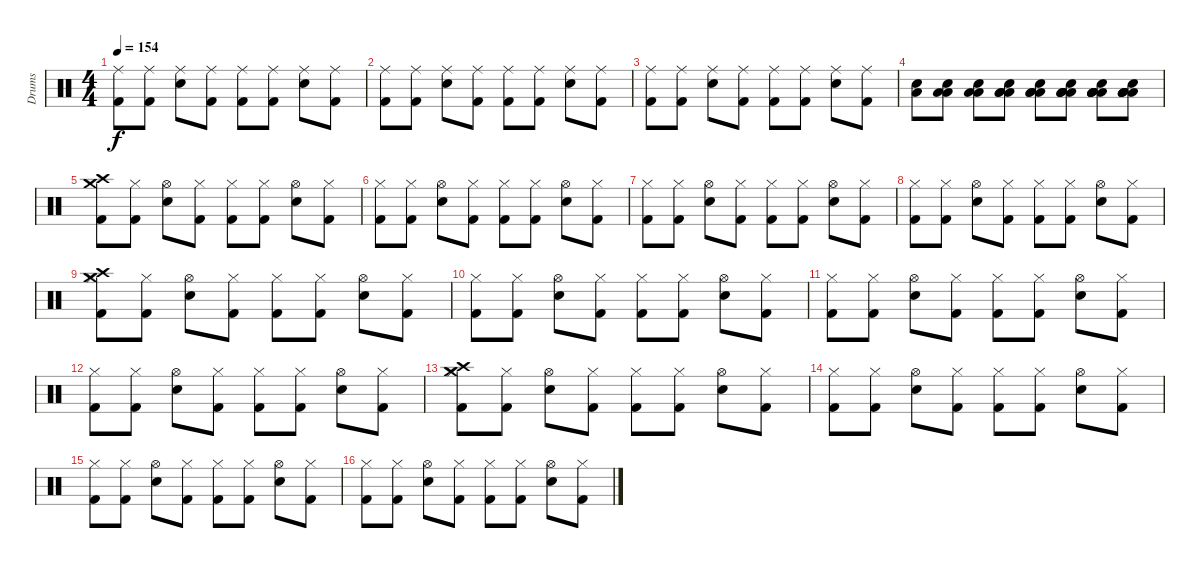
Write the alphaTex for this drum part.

\track ("Drums" "Drums") {instrument percussion}
\staff {score}
\articulation defaults
\ts (4 4)
\tempo 154
\clef neutral
\ks c
("Ride (middle)" "Kick (hit) 2").8{dy f} ("Ride (middle)" "Kick (hit) 2").8 ("Ride (middle)" "Snare (hit) 2").8 ("Ride (middle)" "Kick (hit) 2").8 ("Ride (middle)" "Kick (hit) 2").8 ("Ride (middle)" "Kick (hit) 2").8 ("Ride (middle)" "Snare (hit) 2").8 ("Ride (middle)" "Kick (hit) 2").8 |
("Ride (middle)" "Kick (hit) 2").8 ("Ride (middle)" "Kick (hit) 2").8 ("Ride (middle)" "Snare (hit) 2").8 ("Ride (middle)" "Kick (hit) 2").8 ("Ride (middle)" "Kick (hit) 2").8 ("Ride (middle)" "Kick (hit) 2").8 ("Ride (middle)" "Snare (hit) 2").8 ("Ride (middle)" "Kick (hit) 2").8 |
("Ride (middle)" "Kick (hit) 2").8 ("Ride (middle)" "Kick (hit) 2").8 ("Ride (middle)" "Snare (hit) 2").8 ("Ride (middle)" "Kick (hit) 2").8 ("Ride (middle)" "Kick (hit) 2").8 ("Ride (middle)" "Kick (hit) 2").8 ("Ride (middle)" "Snare (hit) 2").8 ("Ride (middle)" "Kick (hit) 2").8 |
("Low Floor Tom (hit)" "Snare (hit) 2").8 ("Low Tom (hit)" "Low Floor Tom (hit)" "Snare (hit) 2").8 ("Low Tom (hit)" "Low Floor Tom (hit)" "Snare (hit) 2").8 ("Low Floor Tom (hit)" "Low Tom (hit)" "Low Floor Tom (hit)" "Snare (hit) 2").8 ("Low Floor Tom (hit)" "Low Tom (hit)" "Low Floor Tom (hit)" "Snare (hit) 2").8 ("Low Floor Tom (hit)" "Low Floor Tom (hit)" "Low Tom (hit)" "Low Floor Tom (hit)" "Snare (hit) 2").8 ("Low Floor Tom (hit)" "Low Floor Tom (hit)" "Low Floor Tom (hit)" "Low Tom (hit)" "Low Floor Tom (hit)" "Snare (hit) 2").8 ("Low Floor Tom (hit)" "Low Floor Tom (hit)" "Low Floor Tom (hit)" "Low Tom (hit)" "Low Floor Tom (hit)" "Snare (hit) 2").8 |
("Crash high (hit)" "Crash medium (hit)" "Kick (hit) 2").8 ("Hi-Hat (closed)" "Kick (hit) 2").8 ("Hi-Hat (open)" "Snare (hit) 2").8 ("Hi-Hat (closed)" "Kick (hit) 2").8 ("Hi-Hat (closed)" "Kick (hit) 2").8 ("Hi-Hat (closed)" "Kick (hit) 2").8 ("Hi-Hat (open)" "Snare (hit) 2").8 ("Hi-Hat (closed)" "Kick (hit) 2").8 |
("Hi-Hat (closed)" "Kick (hit) 2").8 ("Hi-Hat (closed)" "Kick (hit) 2").8 ("Hi-Hat (open)" "Snare (hit) 2").8 ("Hi-Hat (closed)" "Kick (hit) 2").8 ("Hi-Hat (closed)" "Kick (hit) 2").8 ("Hi-Hat (closed)" "Kick (hit) 2").8 ("Hi-Hat (open)" "Snare (hit) 2").8 ("Hi-Hat (closed)" "Kick (hit) 2").8 |
("Hi-Hat (closed)" "Kick (hit) 2").8 ("Hi-Hat (closed)" "Kick (hit) 2").8 ("Hi-Hat (open)" "Snare (hit) 2").8 ("Hi-Hat (closed)" "Kick (hit) 2").8 ("Hi-Hat (closed)" "Kick (hit) 2").8 ("Hi-Hat (closed)" "Kick (hit) 2").8 ("Hi-Hat (open)" "Snare (hit) 2").8 ("Hi-Hat (closed)" "Kick (hit) 2").8 |
("Hi-Hat (closed)" "Kick (hit) 2").8 ("Hi-Hat (closed)" "Kick (hit) 2").8 ("Hi-Hat (open)" "Snare (hit) 2").8 ("Hi-Hat (closed)" "Kick (hit) 2").8 ("Hi-Hat (closed)" "Kick (hit) 2").8 ("Hi-Hat (closed)" "Kick (hit) 2").8 ("Hi-Hat (open)" "Snare (hit) 2").8 ("Hi-Hat (closed)" "Kick (hit) 2").8 |
("Crash high (hit)" "Crash medium (hit)" "Hi-Hat (closed)" "Kick (hit) 2").8 ("Hi-Hat (closed)" "Kick (hit) 2").8 ("Hi-Hat (open)" "Snare (hit) 2").8 ("Hi-Hat (closed)" "Kick (hit) 2").8 ("Hi-Hat (closed)" "Kick (hit) 2").8 ("Hi-Hat (closed)" "Kick (hit) 2").8 ("Hi-Hat (open)" "Snare (hit) 2").8 ("Hi-Hat (closed)" "Kick (hit) 2").8 |
("Hi-Hat (closed)" "Kick (hit) 2").8 ("Hi-Hat (closed)" "Kick (hit) 2").8 ("Hi-Hat (open)" "Snare (hit) 2").8 ("Hi-Hat (closed)" "Kick (hit) 2").8 ("Hi-Hat (closed)" "Kick (hit) 2").8 ("Hi-Hat (closed)" "Kick (hit) 2").8 ("Hi-Hat (open)" "Snare (hit) 2").8 ("Hi-Hat (closed)" "Kick (hit) 2").8 |
("Hi-Hat (closed)" "Kick (hit) 2").8 ("Hi-Hat (closed)" "Kick (hit) 2").8 ("Hi-Hat (open)" "Snare (hit) 2").8 ("Hi-Hat (closed)" "Kick (hit) 2").8 ("Hi-Hat (closed)" "Kick (hit) 2").8 ("Hi-Hat (closed)" "Kick (hit) 2").8 ("Hi-Hat (open)" "Snare (hit) 2").8 ("Hi-Hat (closed)" "Kick (hit) 2").8 |
("Hi-Hat (closed)" "Kick (hit) 2").8 ("Hi-Hat (closed)" "Kick (hit) 2").8 ("Hi-Hat (open)" "Snare (hit) 2").8 ("Hi-Hat (closed)" "Kick (hit) 2").8 ("Hi-Hat (closed)" "Kick (hit) 2").8 ("Hi-Hat (closed)" "Kick (hit) 2").8 ("Hi-Hat (open)" "Snare (hit) 2").8 ("Hi-Hat (closed)" "Kick (hit) 2").8 |
("Crash medium (hit)" "Crash high (hit)" "Hi-Hat (closed)" "Kick (hit) 2").8 ("Hi-Hat (closed)" "Kick (hit) 2").8 ("Hi-Hat (open)" "Snare (hit) 2").8 ("Hi-Hat (closed)" "Kick (hit) 2").8 ("Hi-Hat (closed)" "Kick (hit) 2").8 ("Hi-Hat (closed)" "Kick (hit) 2").8 ("Hi-Hat (open)" "Snare (hit) 2").8 ("Hi-Hat (closed)" "Kick (hit) 2").8 |
("Hi-Hat (closed)" "Kick (hit) 2").8 ("Hi-Hat (closed)" "Kick (hit) 2").8 ("Hi-Hat (open)" "Snare (hit) 2").8 ("Hi-Hat (closed)" "Kick (hit) 2").8 ("Hi-Hat (closed)" "Kick (hit) 2").8 ("Hi-Hat (closed)" "Kick (hit) 2").8 ("Hi-Hat (open)" "Snare (hit) 2").8 ("Hi-Hat (closed)" "Kick (hit) 2").8 |
("Hi-Hat (closed)" "Kick (hit) 2").8 ("Hi-Hat (closed)" "Kick (hit) 2").8 ("Hi-Hat (open)" "Snare (hit) 2").8 ("Hi-Hat (closed)" "Kick (hit) 2").8 ("Hi-Hat (closed)" "Kick (hit) 2").8 ("Hi-Hat (closed)" "Kick (hit) 2").8 ("Hi-Hat (open)" "Snare (hit) 2").8 ("Hi-Hat (closed)" "Kick (hit) 2").8 |
("Hi-Hat (closed)" "Kick (hit) 2").8 ("Hi-Hat (closed)" "Kick (hit) 2").8 ("Hi-Hat (open)" "Snare (hit) 2").8 ("Hi-Hat (closed)" "Kick (hit) 2").8 ("Hi-Hat (closed)" "Kick (hit) 2").8 ("Hi-Hat (closed)" "Kick (hit) 2").8 ("Hi-Hat (open)" "Snare (hit) 2").8 ("Hi-Hat (closed)" "Kick (hit) 2").8
